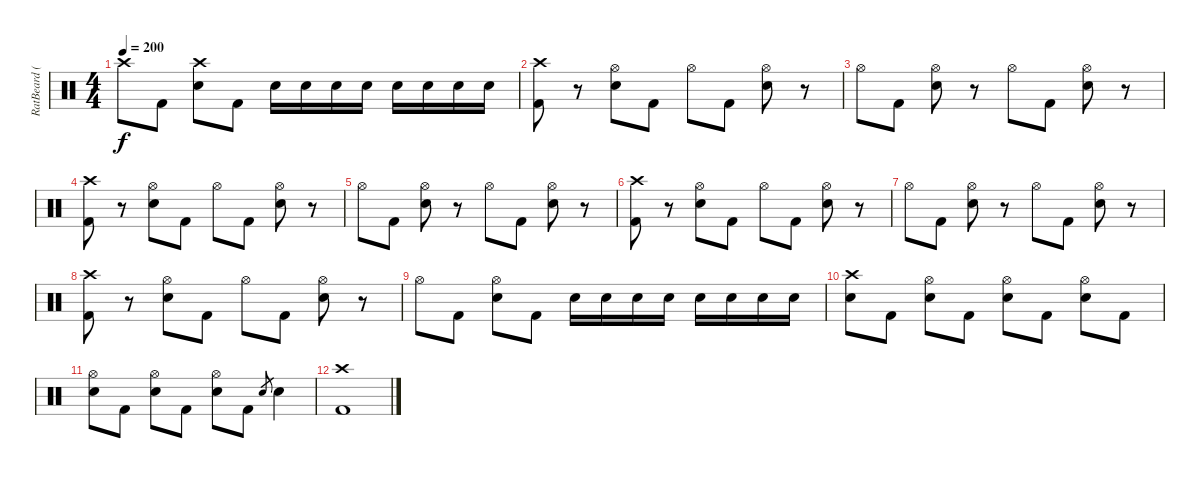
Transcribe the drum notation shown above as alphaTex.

\track ("RatBeard (Drum)" "RatBeard (") {instrument percussion}
\staff {score}
\articulation defaults
\ts (4 4)
\tempo 200
\clef neutral
\ks c "Crash high (hit)".8{dy f} "Kick (hit) 2".8
("Crash high (hit)" "Electric Snare (hit)").8 "Kick (hit) 2".8 "Electric Snare (hit)".16 "Electric Snare (hit)".16 "Electric Snare (hit)".16 "Electric Snare (hit)".16 "Electric Snare (hit)".16 "Electric Snare (hit)".16 "Electric Snare (hit)".16 "Electric Snare (hit)".16 |
("Crash high (hit)" "Kick (hit) 2").8 r.8 ("Hi-Hat (open)" "Electric Snare (hit)").8 "Kick (hit) 2".8 "Hi-Hat (open)".8 "Kick (hit) 2".8 ("Hi-Hat (open)" "Electric Snare (hit)").8 r.8 |
"Hi-Hat (open)".8 "Kick (hit) 2".8 ("Hi-Hat (open)" "Electric Snare (hit)").8 r.8 "Hi-Hat (open)".8 "Kick (hit) 2".8 ("Hi-Hat (open)" "Electric Snare (hit)").8 r.8 |
("Crash high (hit)" "Kick (hit) 2").8 r.8 ("Hi-Hat (open)" "Electric Snare (hit)").8 "Kick (hit) 2".8 "Hi-Hat (open)".8 "Kick (hit) 2".8 ("Hi-Hat (open)" "Electric Snare (hit)").8 r.8 |
"Hi-Hat (open)".8 "Kick (hit) 2".8 ("Hi-Hat (open)" "Electric Snare (hit)").8 r.8 "Hi-Hat (open)".8 "Kick (hit) 2".8 ("Hi-Hat (open)" "Electric Snare (hit)").8 r.8 |
("Crash high (hit)" "Kick (hit) 2").8 r.8 ("Hi-Hat (open)" "Electric Snare (hit)").8 "Kick (hit) 2".8 "Hi-Hat (open)".8 "Kick (hit) 2".8 ("Hi-Hat (open)" "Electric Snare (hit)").8 r.8 |
"Hi-Hat (open)".8 "Kick (hit) 2".8 ("Hi-Hat (open)" "Electric Snare (hit)").8 r.8 "Hi-Hat (open)".8 "Kick (hit) 2".8 ("Hi-Hat (open)" "Electric Snare (hit)").8 r.8 |
("Crash high (hit)" "Kick (hit) 2").8 r.8 ("Hi-Hat (open)" "Electric Snare (hit)").8 "Kick (hit) 2".8 "Hi-Hat (open)".8 "Kick (hit) 2".8 ("Hi-Hat (open)" "Electric Snare (hit)").8 r.8 |
"Hi-Hat (open)".8 "Kick (hit) 2".8 ("Hi-Hat (open)" "Electric Snare (hit)").8 "Kick (hit) 2".8 "Electric Snare (hit)".16 "Electric Snare (hit)".16 "Electric Snare (hit)".16 "Electric Snare (hit)".16 "Electric Snare (hit)".16 "Electric Snare (hit)".16 "Electric Snare (hit)".16 "Electric Snare (hit)".16 |
("Crash high (hit)" "Electric Snare (hit)").8 "Kick (hit) 2".8 ("Hi-Hat (open)" "Electric Snare (hit)").8 "Kick (hit) 2".8 ("Hi-Hat (open)" "Electric Snare (hit)").8 "Kick (hit) 2".8 ("Hi-Hat (open)" "Electric Snare (hit)").8 "Kick (hit) 2".8 |
("Hi-Hat (open)" "Electric Snare (hit)").8 "Kick (hit) 2".8 ("Hi-Hat (open)" "Electric Snare (hit)").8 "Kick (hit) 2".8 ("Hi-Hat (open)" "Electric Snare (hit)").8 "Kick (hit) 2".8 "Electric Snare (hit)".8{gr} "Electric Snare (hit)".4 |
("Crash high (hit)" "Kick (hit) 2").1
